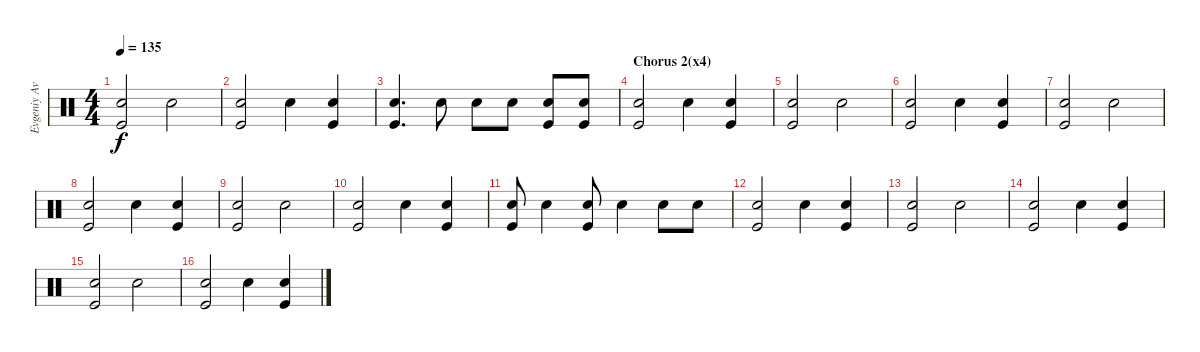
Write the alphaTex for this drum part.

\track ("Evgeniy Avdotin" "Evgeniy Av") {instrument percussion}
\staff {score}
\articulation defaults
\ts (4 4)
\tempo 135
\clef neutral
\ks c
("Snare (hit) 2" "Kick (hit)").2{dy f} "Snare (hit) 2".2 |
("Snare (hit) 2" "Kick (hit)").2 "Snare (hit) 2".4 ("Snare (hit) 2" "Kick (hit)").4 |
("Snare (hit) 2" "Kick (hit)").4{d} "Snare (hit) 2".8 "Snare (hit) 2".8 "Snare (hit) 2".8 ("Snare (hit) 2" "Kick (hit)").8 ("Snare (hit) 2" "Kick (hit)").8 |
\section ("" "Chorus 2(x4)")
("Snare (hit) 2" "Kick (hit)").2 "Snare (hit) 2".4 ("Snare (hit) 2" "Kick (hit)").4 |
("Snare (hit) 2" "Kick (hit)").2 "Snare (hit) 2".2 |
("Snare (hit) 2" "Kick (hit)").2 "Snare (hit) 2".4 ("Snare (hit) 2" "Kick (hit)").4 |
("Snare (hit) 2" "Kick (hit)").2 "Snare (hit) 2".2 |
("Snare (hit) 2" "Kick (hit)").2 "Snare (hit) 2".4 ("Snare (hit) 2" "Kick (hit)").4 |
("Snare (hit) 2" "Kick (hit)").2 "Snare (hit) 2".2 |
("Snare (hit) 2" "Kick (hit)").2 "Snare (hit) 2".4 ("Snare (hit) 2" "Kick (hit)").4 |
("Snare (hit) 2" "Kick (hit)").8 "Snare (hit) 2".4 ("Snare (hit) 2" "Kick (hit)").8 "Snare (hit) 2".4 "Snare (hit) 2".8 "Snare (hit) 2".8 |
("Snare (hit) 2" "Kick (hit)").2 "Snare (hit) 2".4 ("Snare (hit) 2" "Kick (hit)").4 |
("Snare (hit) 2" "Kick (hit)").2 "Snare (hit) 2".2 |
("Snare (hit) 2" "Kick (hit)").2 "Snare (hit) 2".4 ("Snare (hit) 2" "Kick (hit)").4 |
("Snare (hit) 2" "Kick (hit)").2 "Snare (hit) 2".2 |
("Snare (hit) 2" "Kick (hit)").2 "Snare (hit) 2".4 ("Snare (hit) 2" "Kick (hit)").4
